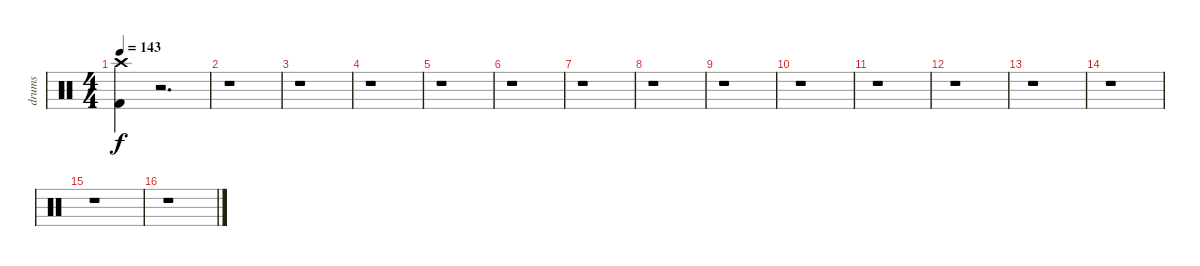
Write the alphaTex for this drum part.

\track ("drums" "drums") {instrument percussion}
\staff {score}
\articulation defaults
\ts (4 4)
\tempo 143
\clef neutral
\ks c
("Crash high (hit)" "Kick (hit) 2").4{dy f} r.2{d} |
r.1 |
r.1 |
r.1 |
r.1 |
r.1 |
r.1 |
r.1 |
r.1 |
r.1 |
r.1 |
r.1 |
r.1 |
r.1 |
r.1 |
r.1
